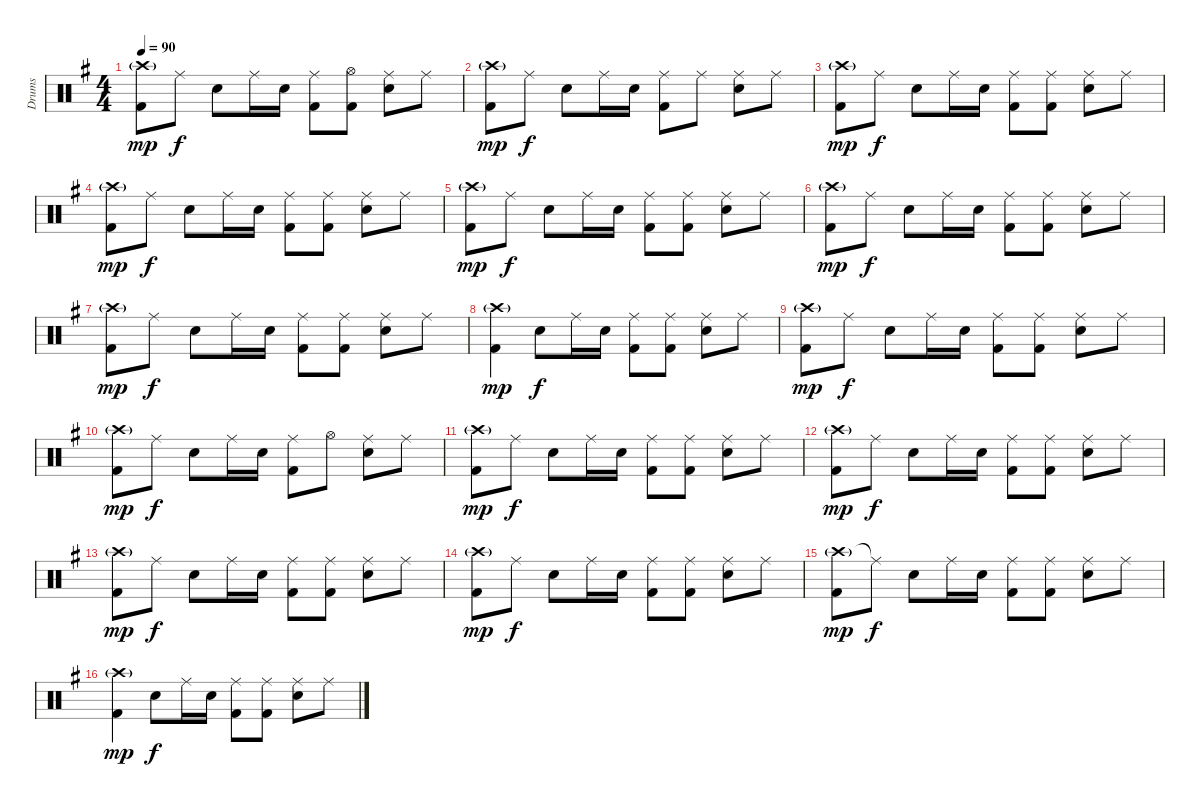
\track ("Drums" "Drums") {instrument percussion}
\staff {score}
\articulation defaults
\ts (4 4)
\tempo 90
\clef neutral
\ks g
("Crash high (hit)"{g} "Kick (hit) 2").8{dy mp} "Ride (middle)".8{dy f} "Snare (hit) 2".8 "Ride (middle)".16 "Snare (hit) 2".16 ("Ride (middle)" "Kick (hit) 2").8 ("Hi-Hat (open)" "Kick (hit) 2").8 ("Ride (middle)" "Snare (hit) 2").8 "Ride (middle)".8 |
("Crash high (hit)"{g} "Kick (hit) 2").8{dy mp} "Ride (middle)".8{dy f} "Snare (hit) 2".8 "Ride (middle)".16 "Snare (hit) 2".16 ("Ride (middle)" "Kick (hit) 2").8 "Ride (middle)".8 ("Ride (middle)" "Snare (hit) 2").8 "Ride (middle)".8 |
("Crash high (hit)"{g} "Kick (hit) 2").8{dy mp} "Ride (middle)".8{dy f} "Snare (hit) 2".8 "Ride (middle)".16 "Snare (hit) 2".16 ("Ride (middle)" "Kick (hit) 2").8 ("Ride (middle)" "Kick (hit) 2").8 ("Ride (middle)" "Snare (hit) 2").8 "Ride (middle)".8 |
("Crash high (hit)"{g} "Kick (hit) 2").8{dy mp} "Ride (middle)".8{dy f} "Snare (hit) 2".8 "Ride (middle)".16 "Snare (hit) 2".16 ("Ride (middle)" "Kick (hit) 2").8 ("Ride (middle)" "Kick (hit) 2").8 ("Ride (middle)" "Snare (hit) 2").8 "Ride (middle)".8 |
("Crash high (hit)"{g} "Kick (hit) 2").8{dy mp} "Ride (middle)".8{dy f} "Snare (hit) 2".8 "Ride (middle)".16 "Snare (hit) 2".16 ("Ride (middle)" "Kick (hit) 2").8 ("Ride (middle)" "Kick (hit) 2").8 ("Ride (middle)" "Snare (hit) 2").8 "Ride (middle)".8 |
("Crash high (hit)"{g} "Kick (hit) 2").8{dy mp} "Ride (middle)".8{dy f} "Snare (hit) 2".8 "Ride (middle)".16 "Snare (hit) 2".16 ("Ride (middle)" "Kick (hit) 2").8 ("Ride (middle)" "Kick (hit) 2").8 ("Ride (middle)" "Snare (hit) 2").8 "Ride (middle)".8 |
("Crash high (hit)"{g} "Kick (hit) 2").8{dy mp} "Ride (middle)".8{dy f} "Snare (hit) 2".8 "Ride (middle)".16 "Snare (hit) 2".16 ("Ride (middle)" "Kick (hit) 2").8 ("Ride (middle)" "Kick (hit) 2").8 ("Ride (middle)" "Snare (hit) 2").8 "Ride (middle)".8 |
("Crash high (hit)"{g} "Kick (hit) 2").4{dy mp} "Snare (hit) 2".8{dy f} "Ride (middle)".16 "Snare (hit) 2".16 ("Ride (middle)" "Kick (hit) 2").8 ("Ride (middle)" "Kick (hit) 2").8 ("Ride (middle)" "Snare (hit) 2").8 "Ride (middle)".8 |
("Crash high (hit)"{g} "Kick (hit) 2").8{dy mp} "Ride (middle)".8{dy f} "Snare (hit) 2".8 "Ride (middle)".16 "Snare (hit) 2".16 ("Ride (middle)" "Kick (hit) 2").8 ("Ride (middle)" "Kick (hit) 2").8 ("Ride (middle)" "Snare (hit) 2").8 "Ride (middle)".8 |
("Crash high (hit)"{g} "Kick (hit) 2").8{dy mp} "Ride (middle)".8{dy f} "Snare (hit) 2".8 "Ride (middle)".16 "Snare (hit) 2".16 ("Ride (middle)" "Kick (hit) 2").8 "Hi-Hat (open)".8 ("Ride (middle)" "Snare (hit) 2").8 "Ride (middle)".8 |
("Crash high (hit)"{g} "Kick (hit) 2").8{dy mp} "Ride (middle)".8{dy f} "Snare (hit) 2".8 "Ride (middle)".16 "Snare (hit) 2".16 ("Ride (middle)" "Kick (hit) 2").8 ("Ride (middle)" "Kick (hit) 2").8 ("Ride (middle)" "Snare (hit) 2").8 "Ride (middle)".8 |
("Crash high (hit)"{g} "Kick (hit) 2").8{dy mp} "Ride (middle)".8{dy f} "Snare (hit) 2".8 "Ride (middle)".16 "Snare (hit) 2".16 ("Ride (middle)" "Kick (hit) 2").8 ("Ride (middle)" "Kick (hit) 2").8 ("Ride (middle)" "Snare (hit) 2").8 "Ride (middle)".8 |
("Crash high (hit)"{g} "Kick (hit) 2").8{dy mp} "Ride (middle)".8{dy f} "Snare (hit) 2".8 "Ride (middle)".16 "Snare (hit) 2".16 ("Ride (middle)" "Kick (hit) 2").8 ("Ride (middle)" "Kick (hit) 2").8 ("Ride (middle)" "Snare (hit) 2").8 "Ride (middle)".8 |
("Crash high (hit)"{g} "Kick (hit) 2").8{dy mp} "Ride (middle)".8{dy f} "Snare (hit) 2".8 "Ride (middle)".16 "Snare (hit) 2".16 ("Ride (middle)" "Kick (hit) 2").8 ("Ride (middle)" "Kick (hit) 2").8 ("Ride (middle)" "Snare (hit) 2").8 "Ride (middle)".8 |
("Crash high (hit)"{g} "Kick (hit) 2").8{dy mp} "Ride (middle)"{t}.8{dy f} "Snare (hit) 2".8 "Ride (middle)".16 "Snare (hit) 2".16 ("Ride (middle)" "Kick (hit) 2").8 ("Ride (middle)" "Kick (hit) 2").8 ("Ride (middle)" "Snare (hit) 2").8 "Ride (middle)".8 |
("Crash high (hit)"{g} "Kick (hit) 2").4{dy mp} "Snare (hit) 2".8{dy f} "Ride (middle)".16 "Snare (hit) 2".16 ("Ride (middle)" "Kick (hit) 2").8 ("Ride (middle)" "Kick (hit) 2").8 ("Ride (middle)" "Snare (hit) 2").8 "Ride (middle)".8
